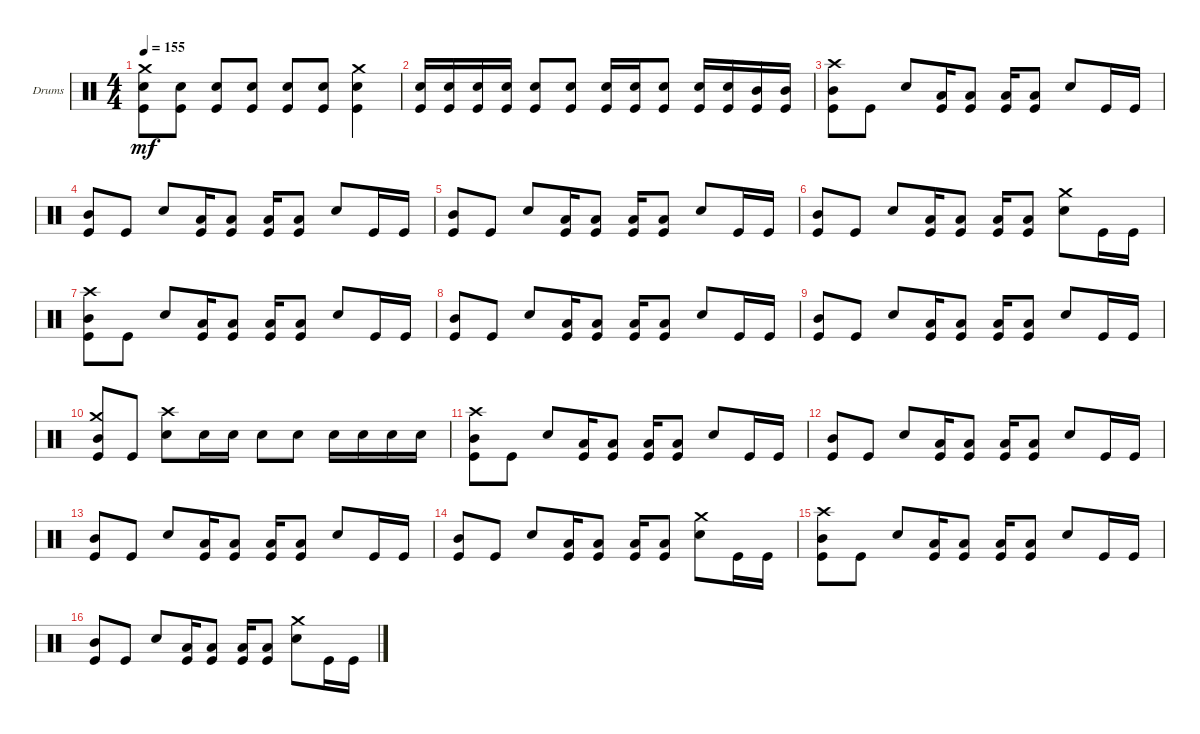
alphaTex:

\defaultSystemsLayout 4
\bracketExtendMode groupsimilarinstruments
\firstSystemTrackNameOrientation horizontal
\otherSystemsTrackNameOrientation horizontal
\track ("Drumkit" "Drums") {instrument percussion}
\staff {score}
\articulation defaults
\ts (4 4)
\tempo 155
\clef neutral
\ks c
("Kick (hit)" "Snare (hit) 2" "Crash medium (hit)").8{dy mf} ("Kick (hit)" "Snare (hit) 2").8 ("Kick (hit)" "Snare (hit) 2").8 ("Kick (hit)" "Snare (hit) 2").8 ("Kick (hit)" "Snare (hit) 2").8 ("Kick (hit)" "Snare (hit) 2").8 ("Kick (hit)" "Snare (hit) 2" "Crash medium (hit)").4 |
("Kick (hit)" "Snare (hit) 2").16 ("Kick (hit)" "Snare (hit) 2").16 ("Kick (hit)" "Snare (hit) 2").16 ("Kick (hit)" "Snare (hit) 2").16 ("Kick (hit)" "Snare (hit) 2").8 ("Kick (hit)" "Snare (hit) 2").8 ("Kick (hit)" "Snare (hit) 2").16 ("Kick (hit)" "Snare (hit) 2").16 ("Kick (hit)" "Snare (hit) 2").8 ("Kick (hit)" "Snare (hit) 2").16 ("Kick (hit)" "Snare (hit) 2").16 ("Kick (hit)" "Mid Tom (hit)").16 ("Kick (hit)" "Mid Tom (hit)").16 |
("Kick (hit)" "Mid Tom (hit)" "Crash high (hit)").8 "Kick (hit)".8 "Snare (hit) 2".8 ("Kick (hit)" "Low Tom (hit)").16 ("Kick (hit)" "Low Tom (hit)").8 ("Kick (hit)" "Low Tom (hit)").16 ("Kick (hit)" "Low Tom (hit)").8 "Snare (hit) 2".8 "Kick (hit)".16 "Kick (hit)".16 |
("Kick (hit)" "Mid Tom (hit)").8 "Kick (hit)".8 "Snare (hit) 2".8 ("Kick (hit)" "Low Tom (hit)").16 ("Kick (hit)" "Low Tom (hit)").8 ("Kick (hit)" "Low Tom (hit)").16 ("Kick (hit)" "Low Tom (hit)").8 "Snare (hit) 2".8 "Kick (hit)".16 "Kick (hit)".16 |
("Kick (hit)" "Mid Tom (hit)").8 "Kick (hit)".8 "Snare (hit) 2".8 ("Kick (hit)" "Low Tom (hit)").16 ("Kick (hit)" "Low Tom (hit)").8 ("Kick (hit)" "Low Tom (hit)").16 ("Kick (hit)" "Low Tom (hit)").8 "Snare (hit) 2".8 "Kick (hit)".16 "Kick (hit)".16 |
("Kick (hit)" "Mid Tom (hit)").8 "Kick (hit)".8 "Snare (hit) 2".8 ("Kick (hit)" "Low Tom (hit)").16 ("Kick (hit)" "Low Tom (hit)").8 ("Kick (hit)" "Low Tom (hit)").16 ("Kick (hit)" "Low Tom (hit)").8 ("Snare (hit) 2" "Crash medium (hit)").8 "Kick (hit)".16 "Kick (hit)".16 |
("Kick (hit)" "Mid Tom (hit)" "Crash high (hit)").8 "Kick (hit)".8 "Snare (hit) 2".8 ("Kick (hit)" "Low Tom (hit)").16 ("Kick (hit)" "Low Tom (hit)").8 ("Kick (hit)" "Low Tom (hit)").16 ("Kick (hit)" "Low Tom (hit)").8 "Snare (hit) 2".8 "Kick (hit)".16 "Kick (hit)".16 |
("Kick (hit)" "Mid Tom (hit)").8 "Kick (hit)".8 "Snare (hit) 2".8 ("Kick (hit)" "Low Tom (hit)").16 ("Kick (hit)" "Low Tom (hit)").8 ("Kick (hit)" "Low Tom (hit)").16 ("Kick (hit)" "Low Tom (hit)").8 "Snare (hit) 2".8 "Kick (hit)".16 "Kick (hit)".16 |
("Kick (hit)" "Mid Tom (hit)").8 "Kick (hit)".8 "Snare (hit) 2".8 ("Kick (hit)" "Low Tom (hit)").16 ("Kick (hit)" "Low Tom (hit)").8 ("Kick (hit)" "Low Tom (hit)").16 ("Kick (hit)" "Low Tom (hit)").8 "Snare (hit) 2".8 "Kick (hit)".16 "Kick (hit)".16 |
("Kick (hit)" "Mid Tom (hit)" "Crash medium (hit)").8 "Kick (hit)".8 ("Snare (hit) 2" "Crash high (hit)").8 "Snare (hit) 2".16 "Snare (hit) 2".16 "Snare (hit) 2".8 "Snare (hit) 2".8 "Snare (hit) 2".16 "Snare (hit) 2".16 "Snare (hit) 2".16 "Snare (hit) 2".16 |
("Kick (hit)" "Mid Tom (hit)" "Crash high (hit)").8 "Kick (hit)".8 "Snare (hit) 2".8 ("Kick (hit)" "Low Tom (hit)").16 ("Kick (hit)" "Low Tom (hit)").8 ("Kick (hit)" "Low Tom (hit)").16 ("Kick (hit)" "Low Tom (hit)").8 "Snare (hit) 2".8 "Kick (hit)".16 "Kick (hit)".16 |
("Kick (hit)" "Mid Tom (hit)").8 "Kick (hit)".8 "Snare (hit) 2".8 ("Kick (hit)" "Low Tom (hit)").16 ("Kick (hit)" "Low Tom (hit)").8 ("Kick (hit)" "Low Tom (hit)").16 ("Kick (hit)" "Low Tom (hit)").8 "Snare (hit) 2".8 "Kick (hit)".16 "Kick (hit)".16 |
("Kick (hit)" "Mid Tom (hit)").8 "Kick (hit)".8 "Snare (hit) 2".8 ("Kick (hit)" "Low Tom (hit)").16 ("Kick (hit)" "Low Tom (hit)").8 ("Kick (hit)" "Low Tom (hit)").16 ("Kick (hit)" "Low Tom (hit)").8 "Snare (hit) 2".8 "Kick (hit)".16 "Kick (hit)".16 |
("Kick (hit)" "Mid Tom (hit)").8 "Kick (hit)".8 "Snare (hit) 2".8 ("Kick (hit)" "Low Tom (hit)").16 ("Kick (hit)" "Low Tom (hit)").8 ("Kick (hit)" "Low Tom (hit)").16 ("Kick (hit)" "Low Tom (hit)").8 ("Snare (hit) 2" "Crash medium (hit)").8 "Kick (hit)".16 "Kick (hit)".16 |
("Kick (hit)" "Mid Tom (hit)" "Crash high (hit)").8 "Kick (hit)".8 "Snare (hit) 2".8 ("Kick (hit)" "Low Tom (hit)").16 ("Kick (hit)" "Low Tom (hit)").8 ("Kick (hit)" "Low Tom (hit)").16 ("Kick (hit)" "Low Tom (hit)").8 "Snare (hit) 2".8 "Kick (hit)".16 "Kick (hit)".16 |
("Kick (hit)" "Mid Tom (hit)").8 "Kick (hit)".8 "Snare (hit) 2".8 ("Kick (hit)" "Low Tom (hit)").16 ("Kick (hit)" "Low Tom (hit)").8 ("Kick (hit)" "Low Tom (hit)").16 ("Kick (hit)" "Low Tom (hit)").8 ("Snare (hit) 2" "Crash medium (hit)").8 "Kick (hit)".16 "Kick (hit)".16
